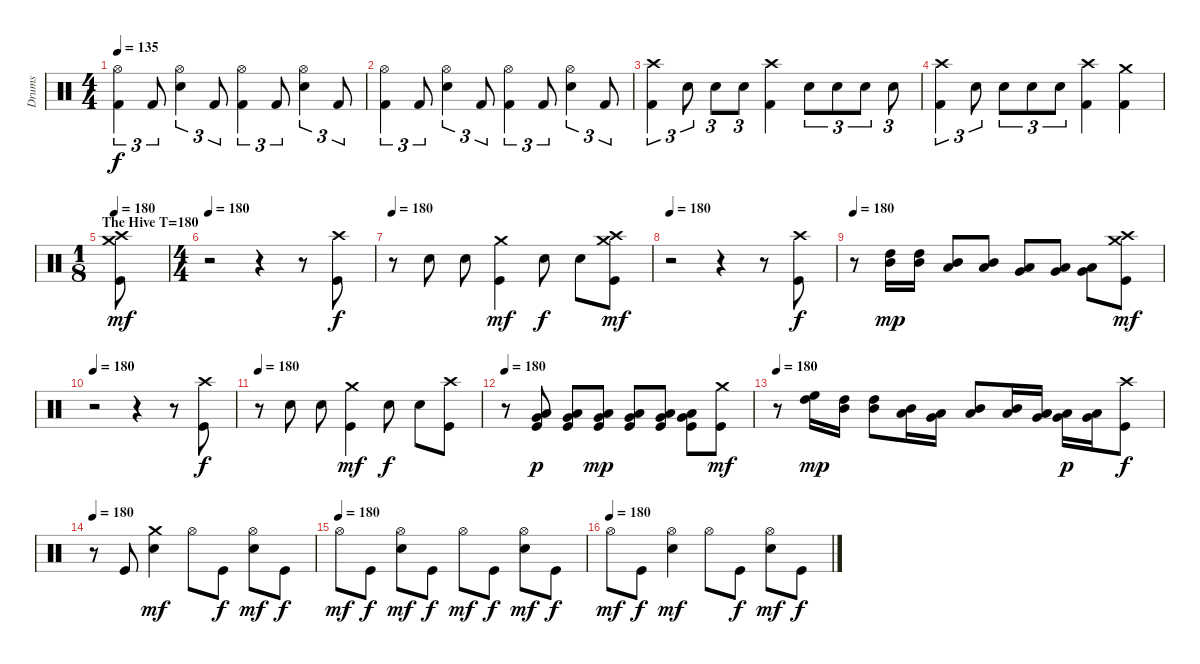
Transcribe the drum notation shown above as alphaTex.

\track ("Drums" "Drums") {instrument percussion}
\staff {score}
\articulation defaults
\ts (4 4)
\tempo 135
\clef neutral
\ks c
("Hi-Hat (open)" "Kick (hit) 2").4{tu (3 2) dy f} "Kick (hit) 2".8{tu (3 2)} ("Hi-Hat (open)" "Electric Snare (hit)").4{tu (3 2)} "Kick (hit) 2".8{tu (3 2)} ("Hi-Hat (open)" "Kick (hit) 2").4{tu (3 2)} "Kick (hit) 2".8{tu (3 2)} ("Hi-Hat (open)" "Electric Snare (hit)").4{tu (3 2)} "Kick (hit) 2".8{tu (3 2)} |
("Hi-Hat (open)" "Kick (hit) 2").4{tu (3 2)} "Kick (hit) 2".8{tu (3 2)} ("Hi-Hat (open)" "Electric Snare (hit)").4{tu (3 2)} "Kick (hit) 2".8{tu (3 2)} ("Hi-Hat (open)" "Kick (hit) 2").4{tu (3 2)} "Kick (hit) 2".8{tu (3 2)} ("Hi-Hat (open)" "Electric Snare (hit)").4{tu (3 2)} "Kick (hit) 2".8{tu (3 2)} |
("Crash high (hit)" "Kick (hit) 2").4{tu (3 2)} "Electric Snare (hit)".8{tu (3 2)} "Electric Snare (hit)".8{tu (3 2)} "Electric Snare (hit)".8{tu (3 2)} ("Crash high (hit)" "Kick (hit) 2").4 "Electric Snare (hit)".8{tu (3 2)} "Electric Snare (hit)".8{tu (3 2)} "Electric Snare (hit)".8{tu (3 2)} "Electric Snare (hit)".8{tu (3 2)} |
("Crash high (hit)" "Kick (hit) 2").4{tu (3 2)} "Electric Snare (hit)".8{tu (3 2)} "Electric Snare (hit)".8{tu (3 2)} "Electric Snare (hit)".8{tu (3 2)} "Electric Snare (hit)".8{tu (3 2)} ("Crash high (hit)" "Kick (hit) 2").4 ("Crash medium (hit)" "Kick (hit) 2").4 |
\ts (1 8)
\section ("" "The Hive T=180")
\tempo 180
("Kick (hit)" "Crash high (hit)" "Crash medium (hit)").8{dy mf} |
\ts (4 4)
\tempo 180
r.2 r.4 r.8 ("Kick (hit)" "Crash high (hit)").8{dy f} |
\tempo 180
r.8 "Electric Snare (hit)".8 "Electric Snare (hit)".8 ("Kick (hit)" "Crash medium (hit)").4{dy mf} "Electric Snare (hit)".8{dy f} "Electric Snare (hit)".8 ("Kick (hit)" "Crash high (hit)" "Crash medium (hit)").8{dy mf} |
\tempo 180
r.2 r.4 r.8 ("Kick (hit)" "Crash high (hit)").8{dy f} |
\tempo 180
r.8 ("Mid Tom (hit)" "High Tom (hit)").16{dy mp} ("Mid Tom (hit)" "High Tom (hit)").16 ("Low Tom (hit)" "Mid Tom (hit)").8 ("Low Tom (hit)" "Mid Tom (hit)").8 ("Very Low Tom (hit)" "Low Tom (hit)").8 ("Very Low Tom (hit)" "Low Tom (hit)").8 ("Low Floor Tom (hit)" "Very Low Tom (hit)").8 ("Kick (hit)" "Crash high (hit)" "Crash medium (hit)").8{dy mf} |
\tempo 180
r.2 r.4 r.8 ("Kick (hit)" "Crash high (hit)").8{dy f} |
\tempo 180
r.8 "Electric Snare (hit)".8 "Electric Snare (hit)".8 ("Kick (hit)" "Crash medium (hit)").4{dy mf} "Electric Snare (hit)".8{dy f} "Electric Snare (hit)".8 ("Kick (hit)" "Crash high (hit)").8 |
\tempo 180
r.8 ("Kick (hit)" "Very Low Tom (hit)" "Low Floor Tom (hit)").8{dy p} ("Kick (hit)" "Very Low Tom (hit)" "Low Floor Tom (hit)").8 ("Kick (hit)" "Very Low Tom (hit)" "Low Floor Tom (hit)").8{dy mp} ("Kick (hit)" "Very Low Tom (hit)" "Low Floor Tom (hit)").8 ("Kick (hit)" "Very Low Tom (hit)" "Low Floor Tom (hit)").8 ("Kick (hit)" "Very Low Tom (hit)" "Low Floor Tom (hit)").8 ("Kick (hit)" "Crash medium (hit)").8{dy mf} |
\tempo 180
r.8 ("High Tom (hit)" "High Floor Tom (hit)").16{dy mp} ("Mid Tom (hit)" "High Tom (hit)").16 ("Mid Tom (hit)" "High Tom (hit)").8 ("Low Tom (hit)" "Mid Tom (hit)").16 ("Very Low Tom (hit)" "Low Tom (hit)").16 ("Low Tom (hit)" "Mid Tom (hit)").8 ("Low Tom (hit)" "Mid Tom (hit)").16 ("Very Low Tom (hit)" "Low Tom (hit)").16 ("Very Low Tom (hit)" "Low Tom (hit)").16{dy p} ("Low Floor Tom (hit)" "Very Low Tom (hit)").16 ("Kick (hit)" "Crash high (hit)").8{dy f} |
\tempo 180
r.8 "Kick (hit)".8 ("Electric Snare (hit)" "Crash medium (hit)").4{dy mf} "Hi-Hat (open)".8 "Kick (hit)".8{dy f} ("Electric Snare (hit)" "Hi-Hat (open)").8{dy mf} "Kick (hit)".8{dy f} |
\tempo (180)
"Hi-Hat (open)".8{dy mf} "Kick (hit)".8{dy f} ("Electric Snare (hit)" "Hi-Hat (open)").8{dy mf} "Kick (hit)".8{dy f} "Hi-Hat (open)".8{dy mf} "Kick (hit)".8{dy f} ("Electric Snare (hit)" "Hi-Hat (open)").8{dy mf} "Kick (hit)".8{dy f} |
\tempo (180)
"Hi-Hat (open)".8{dy mf} "Kick (hit)".8{dy f} ("Electric Snare (hit)" "Hi-Hat (open)").4{dy mf} "Hi-Hat (open)".8 "Kick (hit)".8{dy f} ("Electric Snare (hit)" "Hi-Hat (open)").8{dy mf} "Kick (hit)".8{dy f}
